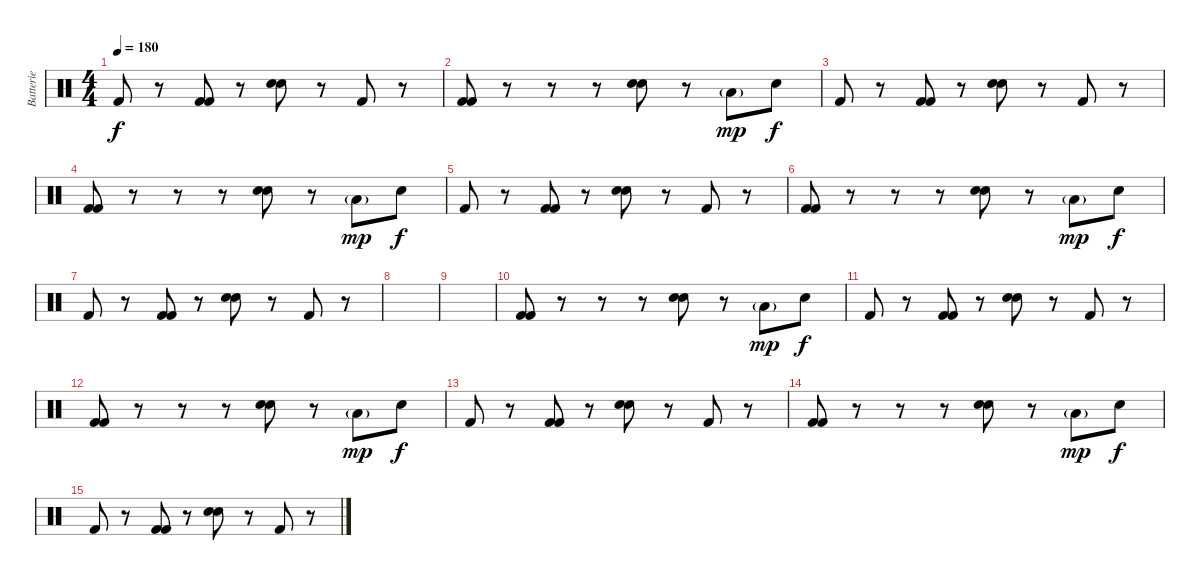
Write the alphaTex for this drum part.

\track ("Batterie" "Batterie") {instrument percussion}
\staff {score}
\articulation defaults
\ts (4 4)
\tempo 180
\clef neutral
\ks c "Kick (hit) 2".8{dy f}
r.8 ("Kick (hit) 2" "Kick (hit) 2").8 r.8 ("Electric Snare (hit)" "Snare (hit) 2").8 r.8 "Kick (hit) 2".8 r.8 |
("Kick (hit) 2" "Kick (hit) 2").8 r.8 r.8 r.8 ("Electric Snare (hit)" "Snare (hit) 2").8 r.8 "Low Tom (hit)"{g}.8{dy mp} "Electric Snare (hit)".8{dy f} |
"Kick (hit) 2".8 r.8 ("Kick (hit) 2" "Kick (hit) 2").8 r.8 ("Electric Snare (hit)" "Snare (hit) 2").8 r.8 "Kick (hit) 2".8 r.8 |
("Kick (hit) 2" "Kick (hit) 2").8 r.8 r.8 r.8 ("Electric Snare (hit)" "Snare (hit) 2").8 r.8 "Low Tom (hit)"{g}.8{dy mp} "Electric Snare (hit)".8{dy f} |
"Kick (hit) 2".8 r.8 ("Kick (hit) 2" "Kick (hit) 2").8 r.8 ("Electric Snare (hit)" "Snare (hit) 2").8 r.8 "Kick (hit) 2".8 r.8 |
("Kick (hit) 2" "Kick (hit) 2").8 r.8 r.8 r.8 ("Electric Snare (hit)" "Snare (hit) 2").8 r.8 "Low Tom (hit)"{g}.8{dy mp} "Electric Snare (hit)".8{dy f} |
"Kick (hit) 2".8 r.8 ("Kick (hit) 2" "Kick (hit) 2").8 r.8 ("Electric Snare (hit)" "Snare (hit) 2").8 r.8 "Kick (hit) 2".8 r.8 |
|
|
("Kick (hit) 2" "Kick (hit) 2").8 r.8 r.8 r.8 ("Electric Snare (hit)" "Snare (hit) 2").8 r.8 "Low Tom (hit)"{g}.8{dy mp} "Electric Snare (hit)".8{dy f} |
"Kick (hit) 2".8 r.8 ("Kick (hit) 2" "Kick (hit) 2").8 r.8 ("Electric Snare (hit)" "Snare (hit) 2").8 r.8 "Kick (hit) 2".8 r.8 |
("Kick (hit) 2" "Kick (hit) 2").8 r.8 r.8 r.8 ("Electric Snare (hit)" "Snare (hit) 2").8 r.8 "Low Tom (hit)"{g}.8{dy mp} "Electric Snare (hit)".8{dy f} |
"Kick (hit) 2".8 r.8 ("Kick (hit) 2" "Kick (hit) 2").8 r.8 ("Electric Snare (hit)" "Snare (hit) 2").8 r.8 "Kick (hit) 2".8 r.8 |
("Kick (hit) 2" "Kick (hit) 2").8 r.8 r.8 r.8 ("Electric Snare (hit)" "Snare (hit) 2").8 r.8 "Low Tom (hit)"{g}.8{dy mp} "Electric Snare (hit)".8{dy f} |
"Kick (hit) 2".8 r.8 ("Kick (hit) 2" "Kick (hit) 2").8 r.8 ("Electric Snare (hit)" "Snare (hit) 2").8 r.8 "Kick (hit) 2".8 r.8
